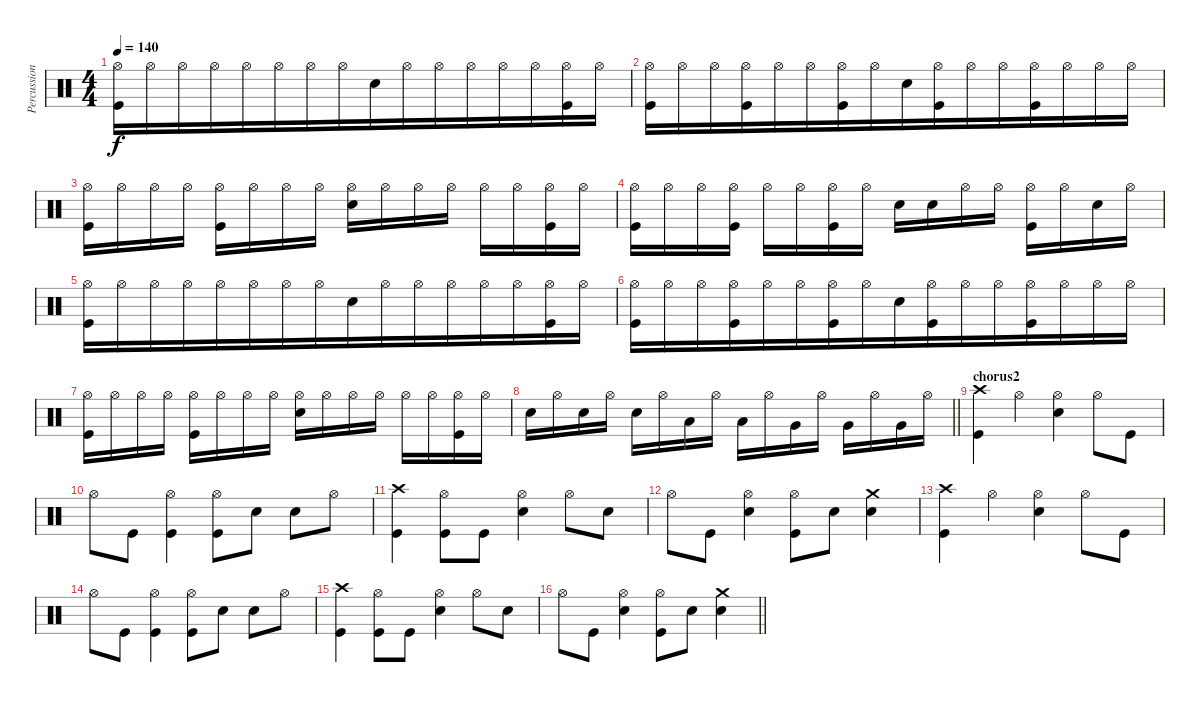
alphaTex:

\track ("Percussion" "Percussion") {instrument percussion}
\staff {score}
\articulation defaults
\ts (4 4)
\tempo 140
\clef neutral
\ks c
("Kick (hit)" "Hi-Hat (open)").16{dy f beam merge} "Hi-Hat (open)".16{beam merge} "Hi-Hat (open)".16{beam merge} "Hi-Hat (open)".16{beam merge} "Hi-Hat (open)".16{beam merge} "Hi-Hat (open)".16{beam merge} "Hi-Hat (open)".16{beam merge} "Hi-Hat (open)".16{beam merge} "Snare (hit) 2".16{beam merge} "Hi-Hat (open)".16{beam merge} "Hi-Hat (open)".16{beam merge} "Hi-Hat (open)".16{beam merge} "Hi-Hat (open)".16{beam merge} "Hi-Hat (open)".16{beam merge} ("Hi-Hat (open)" "Kick (hit)").16{beam merge} "Hi-Hat (open)".16 |
("Hi-Hat (open)" "Kick (hit)").16{beam merge} "Hi-Hat (open)".16{beam merge} "Hi-Hat (open)".16{beam merge} ("Hi-Hat (open)" "Kick (hit)").16{beam merge} "Hi-Hat (open)".16{beam merge} "Hi-Hat (open)".16{beam merge} ("Hi-Hat (open)" "Kick (hit)").16{beam merge} "Hi-Hat (open)".16{beam merge} "Snare (hit) 2".16{beam merge} ("Hi-Hat (open)" "Kick (hit)").16{beam merge} "Hi-Hat (open)".16{beam merge} "Hi-Hat (open)".16{beam merge} ("Hi-Hat (open)" "Kick (hit)").16{beam merge} "Hi-Hat (open)".16{beam merge} "Hi-Hat (open)".16{beam merge} "Hi-Hat (open)".16 |
("Hi-Hat (open)" "Kick (hit)").16 "Hi-Hat (open)".16 "Hi-Hat (open)".16 "Hi-Hat (open)".16 ("Kick (hit)" "Hi-Hat (open)").16 "Hi-Hat (open)".16 "Hi-Hat (open)".16 "Hi-Hat (open)".16 ("Hi-Hat (open)" "Snare (hit) 2").16 "Hi-Hat (open)".16 "Hi-Hat (open)".16 "Hi-Hat (open)".16 "Hi-Hat (open)".16 "Hi-Hat (open)".16 ("Hi-Hat (open)" "Kick (hit)").16 "Hi-Hat (open)".16 |
("Hi-Hat (open)" "Kick (hit)").16 "Hi-Hat (open)".16 "Hi-Hat (open)".16 ("Hi-Hat (open)" "Kick (hit)").16 "Hi-Hat (open)".16 "Hi-Hat (open)".16 ("Hi-Hat (open)" "Kick (hit)").16 "Hi-Hat (open)".16 "Snare (hit) 2".16 "Snare (hit) 2".16 "Hi-Hat (open)".16 "Hi-Hat (open)".16 ("Hi-Hat (open)" "Kick (hit)").16 "Hi-Hat (open)".16 "Snare (hit) 2".16 "Hi-Hat (open)".16 |
("Kick (hit)" "Hi-Hat (open)").16{beam merge} "Hi-Hat (open)".16{beam merge} "Hi-Hat (open)".16{beam merge} "Hi-Hat (open)".16{beam merge} "Hi-Hat (open)".16{beam merge} "Hi-Hat (open)".16{beam merge} "Hi-Hat (open)".16{beam merge} "Hi-Hat (open)".16{beam merge} "Snare (hit) 2".16{beam merge} "Hi-Hat (open)".16{beam merge} "Hi-Hat (open)".16{beam merge} "Hi-Hat (open)".16{beam merge} "Hi-Hat (open)".16{beam merge} "Hi-Hat (open)".16{beam merge} ("Hi-Hat (open)" "Kick (hit)").16{beam merge} "Hi-Hat (open)".16 |
("Hi-Hat (open)" "Kick (hit)").16{beam merge} "Hi-Hat (open)".16{beam merge} "Hi-Hat (open)".16{beam merge} ("Hi-Hat (open)" "Kick (hit)").16{beam merge} "Hi-Hat (open)".16{beam merge} "Hi-Hat (open)".16{beam merge} ("Hi-Hat (open)" "Kick (hit)").16{beam merge} "Hi-Hat (open)".16{beam merge} "Snare (hit) 2".16{beam merge} ("Hi-Hat (open)" "Kick (hit)").16{beam merge} "Hi-Hat (open)".16{beam merge} "Hi-Hat (open)".16{beam merge} ("Hi-Hat (open)" "Kick (hit)").16{beam merge} "Hi-Hat (open)".16{beam merge} "Hi-Hat (open)".16{beam merge} "Hi-Hat (open)".16 |
("Hi-Hat (open)" "Kick (hit)").16 "Hi-Hat (open)".16 "Hi-Hat (open)".16 "Hi-Hat (open)".16 ("Kick (hit)" "Hi-Hat (open)").16 "Hi-Hat (open)".16 "Hi-Hat (open)".16 "Hi-Hat (open)".16 ("Hi-Hat (open)" "Snare (hit) 2").16 "Hi-Hat (open)".16 "Hi-Hat (open)".16 "Hi-Hat (open)".16 "Hi-Hat (open)".16 "Hi-Hat (open)".16 ("Hi-Hat (open)" "Kick (hit)").16 "Hi-Hat (open)".16 |
\barLineRight lightlight "Snare (hit) 2".16 "Hi-Hat (open)".16 "Snare (hit) 2".16 "Hi-Hat (open)".16 "Snare (hit) 2".16 "Hi-Hat (open)".16 "Low Tom (hit)".16 "Hi-Hat (open)".16 "Low Tom (hit)".16 "Hi-Hat (open)".16 "Very Low Tom (hit)".16 "Hi-Hat (open)".16 "Very Low Tom (hit)".16 "Hi-Hat (open)".16 "Very Low Tom (hit)".16 "Hi-Hat (open)".16
|
\section ("" "chorus2")
("Kick (hit)" "Crash high (hit)").4 "Hi-Hat (open)".4 ("Hi-Hat (open)" "Snare (hit) 2").4 "Hi-Hat (open)".8 "Kick (hit)".8 |
"Hi-Hat (open)".8 "Kick (hit)".8 ("Hi-Hat (open)" "Kick (hit)").4 ("Hi-Hat (open)" "Kick (hit)").8 "Snare (hit) 2".8 "Snare (hit) 2".8 "Hi-Hat (open)".8 |
("Crash high (hit)" "Kick (hit)").4 ("Hi-Hat (open)" "Kick (hit)").8 "Kick (hit)".8 ("Hi-Hat (open)" "Snare (hit) 2").4 "Hi-Hat (open)".8 "Snare (hit) 2".8 |
"Hi-Hat (open)".8 "Kick (hit)".8 ("Snare (hit) 2" "Hi-Hat (open)").4 ("Kick (hit)" "Hi-Hat (open)").8 "Snare (hit) 2".8 ("Snare (hit) 2" "Crash medium (hit)").4 |
("Crash high (hit)" "Kick (hit)").4 "Hi-Hat (open)".4 ("Hi-Hat (open)" "Snare (hit) 2").4 "Hi-Hat (open)".8 "Kick (hit)".8 |
"Hi-Hat (open)".8 "Kick (hit)".8 ("Hi-Hat (open)" "Kick (hit)").4 ("Hi-Hat (open)" "Kick (hit)").8 "Snare (hit) 2".8 "Snare (hit) 2".8 "Hi-Hat (open)".8 |
("Crash high (hit)" "Kick (hit)").4 ("Hi-Hat (open)" "Kick (hit)").8 "Kick (hit)".8 ("Hi-Hat (open)" "Snare (hit) 2").4 "Hi-Hat (open)".8 "Snare (hit) 2".8 |
\barLineRight lightlight "Hi-Hat (open)".8 "Kick (hit)".8
("Snare (hit) 2" "Hi-Hat (open)").4 ("Kick (hit)" "Hi-Hat (open)").8 "Snare (hit) 2".8 ("Snare (hit) 2" "Crash medium (hit)").4
